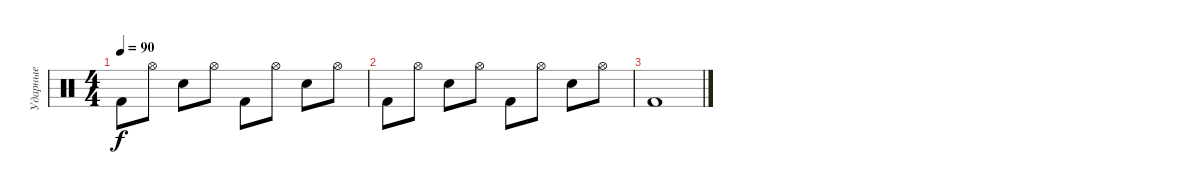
\track ("Ударные" "Ударные") {instrument percussion}
\staff {score}
\articulation defaults
\ts (4 4)
\tempo 90
\clef neutral
\ks c "Kick (hit) 2".8{dy f} "Hi-Hat (open)".8 "Electric Snare (hit)".8 "Hi-Hat (open)".8 "Kick (hit) 2".8 "Hi-Hat (open)".8 "Electric Snare (hit)".8 "Hi-Hat (open)".8
|
"Kick (hit) 2".8 "Hi-Hat (open)".8 "Electric Snare (hit)".8 "Hi-Hat (open)".8 "Kick (hit) 2".8 "Hi-Hat (open)".8 "Electric Snare (hit)".8 "Hi-Hat (open)".8 |
"Kick (hit) 2".1
